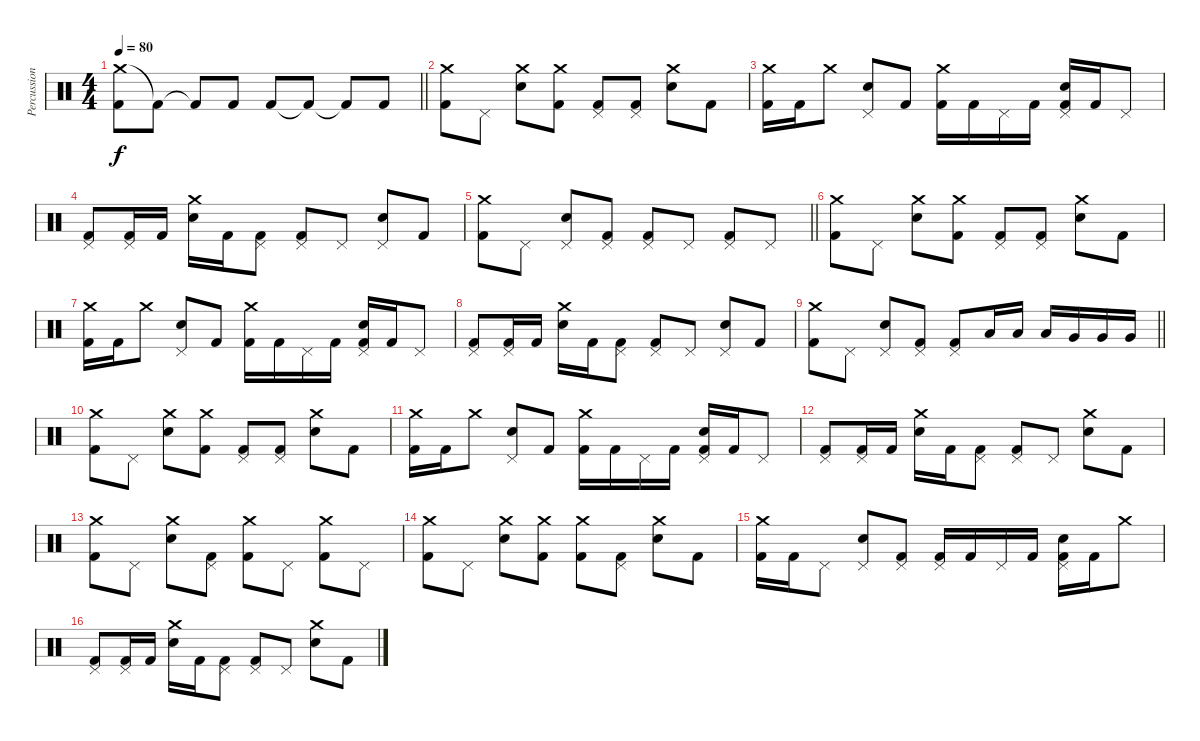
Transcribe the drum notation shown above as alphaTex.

\track ("Percussion" "Percussion") {instrument percussion}
\staff {score}
\articulation defaults
\ts (4 4)
\tempo 80
\clef neutral
\barLineRight lightlight
\ks c
("Crash medium (hit)" "Kick (hit) 2").8{dy f} "Kick (hit) 2"{t}.8 "Kick (hit) 2"{t}.8 "Kick (hit) 2".8 "Kick (hit) 2".8 "Kick (hit) 2"{t}.8 "Kick (hit) 2"{t}.8 "Kick (hit) 2".8 |
("Crash medium (hit)" "Kick (hit) 2").8 "Pedal Hi-Hat (hit)".8 ("Crash medium (hit)" "Electric Snare (hit)").8 ("Crash medium (hit)" "Kick (hit) 2").8 ("Pedal Hi-Hat (hit)" "Kick (hit) 2").8 ("Pedal Hi-Hat (hit)" "Kick (hit) 2").8 ("Crash medium (hit)" "Electric Snare (hit)").8 "Kick (hit) 2".8 |
("Crash medium (hit)" "Kick (hit) 2").16 "Kick (hit) 2".16 "Crash medium (hit)".8 ("Pedal Hi-Hat (hit)" "Electric Snare (hit)").8 "Kick (hit) 2".8 ("Crash medium (hit)" "Kick (hit) 2").16 "Kick (hit) 2".16 "Pedal Hi-Hat (hit)".16 "Kick (hit) 2".16 ("Pedal Hi-Hat (hit)" "Electric Snare (hit)" "Kick (hit) 2").16 "Kick (hit) 2".16 "Pedal Hi-Hat (hit)".8 |
("Pedal Hi-Hat (hit)" "Kick (hit) 2").8 ("Pedal Hi-Hat (hit)" "Kick (hit) 2").16 "Kick (hit) 2".16 ("Crash medium (hit)" "Electric Snare (hit)").16 "Kick (hit) 2".16 ("Pedal Hi-Hat (hit)" "Kick (hit) 2").8 ("Pedal Hi-Hat (hit)" "Kick (hit) 2").8 "Pedal Hi-Hat (hit)".8 ("Pedal Hi-Hat (hit)" "Electric Snare (hit)").8 "Kick (hit) 2".8 |
\barLineRight lightlight
("Crash medium (hit)" "Kick (hit) 2").8 "Pedal Hi-Hat (hit)".8 ("Pedal Hi-Hat (hit)" "Electric Snare (hit)").8 ("Pedal Hi-Hat (hit)" "Kick (hit) 2").8 ("Pedal Hi-Hat (hit)" "Kick (hit) 2").8 "Pedal Hi-Hat (hit)".8 ("Pedal Hi-Hat (hit)" "Kick (hit) 2").8 "Pedal Hi-Hat (hit)".8 |
("Crash medium (hit)" "Kick (hit) 2").8 "Pedal Hi-Hat (hit)".8 ("Crash medium (hit)" "Electric Snare (hit)").8 ("Crash medium (hit)" "Kick (hit) 2").8 ("Pedal Hi-Hat (hit)" "Kick (hit) 2").8 ("Pedal Hi-Hat (hit)" "Kick (hit) 2").8 ("Crash medium (hit)" "Electric Snare (hit)").8 "Kick (hit) 2".8 |
("Crash medium (hit)" "Kick (hit) 2").16 "Kick (hit) 2".16 "Crash medium (hit)".8 ("Pedal Hi-Hat (hit)" "Electric Snare (hit)").8 "Kick (hit) 2".8 ("Crash medium (hit)" "Kick (hit) 2").16 "Kick (hit) 2".16 "Pedal Hi-Hat (hit)".16 "Kick (hit) 2".16 ("Pedal Hi-Hat (hit)" "Electric Snare (hit)" "Kick (hit) 2").16 "Kick (hit) 2".16 "Pedal Hi-Hat (hit)".8 |
("Pedal Hi-Hat (hit)" "Kick (hit) 2").8 ("Pedal Hi-Hat (hit)" "Kick (hit) 2").16 "Kick (hit) 2".16 ("Crash medium (hit)" "Electric Snare (hit)").16 "Kick (hit) 2".16 ("Pedal Hi-Hat (hit)" "Kick (hit) 2").8 ("Pedal Hi-Hat (hit)" "Kick (hit) 2").8 "Pedal Hi-Hat (hit)".8 ("Pedal Hi-Hat (hit)" "Electric Snare (hit)").8 "Kick (hit) 2".8 |
\barLineRight lightlight
("Crash medium (hit)" "Kick (hit) 2").8 "Pedal Hi-Hat (hit)".8 ("Pedal Hi-Hat (hit)" "Electric Snare (hit)").8 ("Pedal Hi-Hat (hit)" "Kick (hit) 2").8 ("Pedal Hi-Hat (hit)" "Kick (hit) 2").8 "Low Tom (hit)".16 "Low Tom (hit)".16 "Low Tom (hit)".16 "Very Low Tom (hit)".16 "Very Low Tom (hit)".16 "Very Low Tom (hit)".16 |
("Crash medium (hit)" "Kick (hit) 2").8 "Pedal Hi-Hat (hit)".8 ("Crash medium (hit)" "Electric Snare (hit)").8 ("Crash medium (hit)" "Kick (hit) 2").8 ("Pedal Hi-Hat (hit)" "Kick (hit) 2").8 ("Pedal Hi-Hat (hit)" "Kick (hit) 2").8 ("Crash medium (hit)" "Electric Snare (hit)").8 "Kick (hit) 2".8 |
("Crash medium (hit)" "Kick (hit) 2").16 "Kick (hit) 2".16 "Crash medium (hit)".8 ("Pedal Hi-Hat (hit)" "Electric Snare (hit)").8 "Kick (hit) 2".8 ("Crash medium (hit)" "Kick (hit) 2").16 "Kick (hit) 2".16 "Pedal Hi-Hat (hit)".16 "Kick (hit) 2".16 ("Pedal Hi-Hat (hit)" "Electric Snare (hit)" "Kick (hit) 2").16 "Kick (hit) 2".16 "Pedal Hi-Hat (hit)".8 |
("Pedal Hi-Hat (hit)" "Kick (hit) 2").8 ("Pedal Hi-Hat (hit)" "Kick (hit) 2").16 "Kick (hit) 2".16 ("Crash medium (hit)" "Electric Snare (hit)").16 "Kick (hit) 2".16 ("Pedal Hi-Hat (hit)" "Kick (hit) 2").8 ("Pedal Hi-Hat (hit)" "Kick (hit) 2").8 "Pedal Hi-Hat (hit)".8 ("Crash medium (hit)" "Electric Snare (hit)").8 "Kick (hit) 2".8 |
("Crash medium (hit)" "Kick (hit) 2").8 "Pedal Hi-Hat (hit)".8 ("Crash medium (hit)" "Electric Snare (hit)").8 ("Pedal Hi-Hat (hit)" "Kick (hit) 2").8 ("Crash medium (hit)" "Kick (hit) 2").8 "Pedal Hi-Hat (hit)".8 ("Crash medium (hit)" "Kick (hit) 2").8 "Pedal Hi-Hat (hit)".8 |
("Crash medium (hit)" "Kick (hit) 2").8 "Pedal Hi-Hat (hit)".8 ("Crash medium (hit)" "Electric Snare (hit)").8 ("Crash medium (hit)" "Kick (hit) 2").8 ("Crash medium (hit)" "Kick (hit) 2").8 ("Pedal Hi-Hat (hit)" "Kick (hit) 2").8 ("Crash medium (hit)" "Electric Snare (hit)").8 "Kick (hit) 2".8 |
("Crash medium (hit)" "Kick (hit) 2").16 "Kick (hit) 2".16 "Pedal Hi-Hat (hit)".8 ("Pedal Hi-Hat (hit)" "Electric Snare (hit)").8 ("Pedal Hi-Hat (hit)" "Kick (hit) 2").8 ("Pedal Hi-Hat (hit)" "Kick (hit) 2").16 "Kick (hit) 2".16 "Pedal Hi-Hat (hit)".16 "Kick (hit) 2".16 ("Pedal Hi-Hat (hit)" "Electric Snare (hit)" "Kick (hit) 2").16 "Kick (hit) 2".16 "Crash medium (hit)".8 |
("Pedal Hi-Hat (hit)" "Kick (hit) 2").8 ("Pedal Hi-Hat (hit)" "Kick (hit) 2").16 "Kick (hit) 2".16 ("Crash medium (hit)" "Electric Snare (hit)").16 "Kick (hit) 2".16 ("Pedal Hi-Hat (hit)" "Kick (hit) 2").8 ("Pedal Hi-Hat (hit)" "Kick (hit) 2").8 "Pedal Hi-Hat (hit)".8 ("Crash medium (hit)" "Electric Snare (hit)").8 "Kick (hit) 2".8
